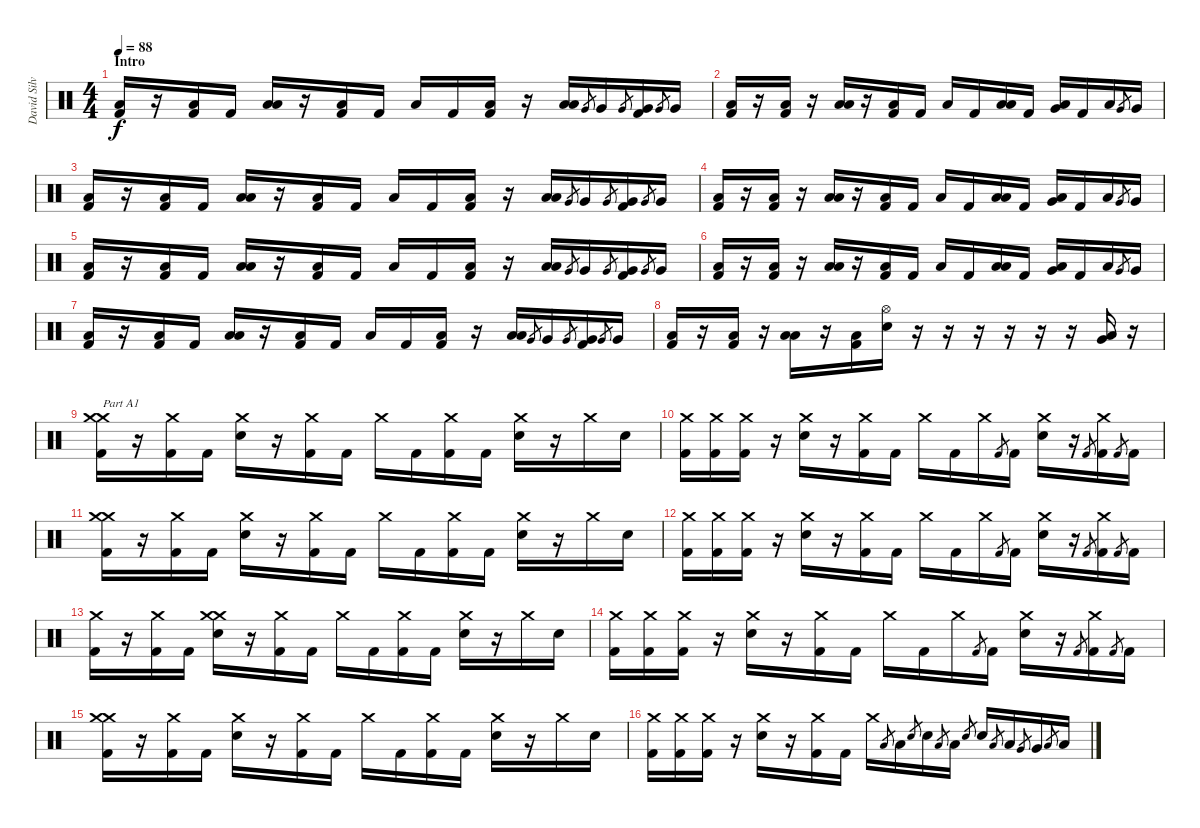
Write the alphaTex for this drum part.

\track ("David Silveria" "David Silv") {instrument percussion}
\staff {score}
\articulation defaults
\ts (4 4)
\section ("" "Intro")
\tempo 88
\clef neutral
\ks c
("Low Floor Tom (hit)" "Kick (hit) 2").16{dy f} r.16 ("Low Floor Tom (hit)" "Kick (hit) 2").16 "Kick (hit) 2".16 ("Low Tom (hit)" "Low Floor Tom (hit)").16 r.16 ("Low Floor Tom (hit)" "Kick (hit) 2").16 "Kick (hit) 2".16 "Low Floor Tom (hit)".16 "Kick (hit) 2".16 ("Low Floor Tom (hit)" "Kick (hit) 2").16 r.16 ("Low Tom (hit)" "Low Floor Tom (hit)").16 "Very Low Tom (hit)".8{gr} "Very Low Tom (hit)".16 "Very Low Tom (hit)".8{gr} ("Very Low Tom (hit)" "Kick (hit) 2").16 "Very Low Tom (hit)".8{gr} "Very Low Tom (hit)".16 |
("Low Floor Tom (hit)" "Kick (hit) 2").16 r.16 ("Low Floor Tom (hit)" "Kick (hit) 2").16 r.16 ("Low Tom (hit)" "Low Floor Tom (hit)").16 r.16 ("Low Floor Tom (hit)" "Kick (hit) 2").16 "Kick (hit) 2".16 "Low Floor Tom (hit)".16 "Kick (hit) 2".16 ("Low Tom (hit)" "Low Floor Tom (hit)").16 "Kick (hit) 2".16 ("Very Low Tom (hit)" "Low Floor Tom (hit)").16 "Kick (hit) 2".16 "Low Floor Tom (hit)".16 "Very Low Tom (hit)".8{gr} "Very Low Tom (hit)".16 |
("Low Floor Tom (hit)" "Kick (hit) 2").16 r.16 ("Low Floor Tom (hit)" "Kick (hit) 2").16 "Kick (hit) 2".16 ("Low Tom (hit)" "Low Floor Tom (hit)").16 r.16 ("Low Floor Tom (hit)" "Kick (hit) 2").16 "Kick (hit) 2".16 "Low Floor Tom (hit)".16 "Kick (hit) 2".16 ("Low Floor Tom (hit)" "Kick (hit) 2").16 r.16 ("Low Tom (hit)" "Low Floor Tom (hit)").16 "Very Low Tom (hit)".8{gr} "Very Low Tom (hit)".16 "Very Low Tom (hit)".8{gr} ("Very Low Tom (hit)" "Kick (hit) 2").16 "Very Low Tom (hit)".8{gr} "Very Low Tom (hit)".16 |
("Low Floor Tom (hit)" "Kick (hit) 2").16 r.16 ("Low Floor Tom (hit)" "Kick (hit) 2").16 r.16 ("Low Tom (hit)" "Low Floor Tom (hit)").16 r.16 ("Low Floor Tom (hit)" "Kick (hit) 2").16 "Kick (hit) 2".16 "Low Floor Tom (hit)".16 "Kick (hit) 2".16 ("Low Tom (hit)" "Low Floor Tom (hit)").16 "Kick (hit) 2".16 ("Very Low Tom (hit)" "Low Floor Tom (hit)").16 "Kick (hit) 2".16 "Low Floor Tom (hit)".16 "Very Low Tom (hit)".8{gr} "Very Low Tom (hit)".16 |
("Low Floor Tom (hit)" "Kick (hit) 2").16 r.16 ("Low Floor Tom (hit)" "Kick (hit) 2").16 "Kick (hit) 2".16 ("Low Tom (hit)" "Low Floor Tom (hit)").16 r.16 ("Low Floor Tom (hit)" "Kick (hit) 2").16 "Kick (hit) 2".16 "Low Floor Tom (hit)".16 "Kick (hit) 2".16 ("Low Floor Tom (hit)" "Kick (hit) 2").16 r.16 ("Low Tom (hit)" "Low Floor Tom (hit)").16 "Very Low Tom (hit)".8{gr} "Very Low Tom (hit)".16 "Very Low Tom (hit)".8{gr} ("Very Low Tom (hit)" "Kick (hit) 2").16 "Very Low Tom (hit)".8{gr} "Very Low Tom (hit)".16 |
("Low Floor Tom (hit)" "Kick (hit) 2").16 r.16 ("Low Floor Tom (hit)" "Kick (hit) 2").16 r.16 ("Low Tom (hit)" "Low Floor Tom (hit)").16 r.16 ("Low Floor Tom (hit)" "Kick (hit) 2").16 "Kick (hit) 2".16 "Low Floor Tom (hit)".16 "Kick (hit) 2".16 ("Low Tom (hit)" "Low Floor Tom (hit)").16 "Kick (hit) 2".16 ("Very Low Tom (hit)" "Low Floor Tom (hit)").16 "Kick (hit) 2".16 "Low Floor Tom (hit)".16 "Very Low Tom (hit)".8{gr} "Very Low Tom (hit)".16 |
("Low Floor Tom (hit)" "Kick (hit) 2").16 r.16 ("Low Floor Tom (hit)" "Kick (hit) 2").16 "Kick (hit) 2".16 ("Low Tom (hit)" "Low Floor Tom (hit)").16 r.16 ("Low Floor Tom (hit)" "Kick (hit) 2").16 "Kick (hit) 2".16 "Low Floor Tom (hit)".16 "Kick (hit) 2".16 ("Low Floor Tom (hit)" "Kick (hit) 2").16 r.16 ("Low Tom (hit)" "Low Floor Tom (hit)").16 "Very Low Tom (hit)".8{gr} "Very Low Tom (hit)".16 "Very Low Tom (hit)".8{gr} ("Very Low Tom (hit)" "Kick (hit) 2").16 "Very Low Tom (hit)".8{gr} "Very Low Tom (hit)".16 |
("Low Floor Tom (hit)" "Kick (hit) 2").16 r.16 ("Low Floor Tom (hit)" "Kick (hit) 2").16 r.16 ("Low Tom (hit)" "Low Floor Tom (hit)").16 r.16 ("Low Floor Tom (hit)" "Kick (hit) 2").16 ("Hi-Hat (open)" "Snare (hit) 2").16 r.16 r.16 r.16 r.16 r.16 r.16 ("Very Low Tom (hit)" "Low Floor Tom (hit)").16 r.16 |
("Crash medium (hit)" "Crash medium (hit)" "Kick (hit) 2").16{txt "Part A1"} r.16 ("Crash medium (hit)" "Kick (hit) 2").16 "Kick (hit) 2".16 ("Crash medium (hit)" "Snare (hit) 2").16 r.16 ("Crash medium (hit)" "Kick (hit) 2").16 "Kick (hit) 2".16 "Crash medium (hit)".16 "Kick (hit) 2".16 ("Crash medium (hit)" "Kick (hit) 2").16 "Kick (hit) 2".16 ("Crash medium (hit)" "Snare (hit) 2").16 r.16 "Crash medium (hit)".16 "Snare (hit) 2".16 |
("Crash medium (hit)" "Kick (hit) 2").16 ("Crash medium (hit)" "Kick (hit) 2").16 ("Crash medium (hit)" "Kick (hit) 2").16 r.16 ("Crash medium (hit)" "Snare (hit) 2").16 r.16 ("Crash medium (hit)" "Kick (hit) 2").16 "Kick (hit) 2".16 "Crash medium (hit)".16 "Kick (hit) 2".16 "Crash medium (hit)".16 "Kick (hit) 2".8{gr} "Kick (hit) 2".16 ("Crash medium (hit)" "Snare (hit) 2").16 r.16 "Kick (hit) 2".8{gr} ("Crash medium (hit)" "Kick (hit) 2").16 "Kick (hit) 2".8{gr} "Kick (hit) 2".16 |
("Crash medium (hit)" "Crash medium (hit)" "Kick (hit) 2").16 r.16 ("Crash medium (hit)" "Kick (hit) 2").16 "Kick (hit) 2".16 ("Crash medium (hit)" "Snare (hit) 2").16 r.16 ("Crash medium (hit)" "Kick (hit) 2").16 "Kick (hit) 2".16 "Crash medium (hit)".16 "Kick (hit) 2".16 ("Crash medium (hit)" "Kick (hit) 2").16 "Kick (hit) 2".16 ("Crash medium (hit)" "Snare (hit) 2").16 r.16 "Crash medium (hit)".16 "Snare (hit) 2".16 |
("Crash medium (hit)" "Kick (hit) 2").16 ("Crash medium (hit)" "Kick (hit) 2").16 ("Crash medium (hit)" "Kick (hit) 2").16 r.16 ("Crash medium (hit)" "Snare (hit) 2").16 r.16 ("Crash medium (hit)" "Kick (hit) 2").16 "Kick (hit) 2".16 "Crash medium (hit)".16 "Kick (hit) 2".16 "Crash medium (hit)".16 "Kick (hit) 2".8{gr} "Kick (hit) 2".16 ("Crash medium (hit)" "Snare (hit) 2").16 r.16 "Kick (hit) 2".8{gr} ("Crash medium (hit)" "Kick (hit) 2").16 "Kick (hit) 2".8{gr} "Kick (hit) 2".16 |
("Crash medium (hit)" "Kick (hit) 2").16 r.16 ("Crash medium (hit)" "Kick (hit) 2").16 "Kick (hit) 2".16 ("Crash medium (hit)" "Crash medium (hit)" "Snare (hit) 2").16 r.16 ("Crash medium (hit)" "Kick (hit) 2").16 "Kick (hit) 2".16 "Crash medium (hit)".16 "Kick (hit) 2".16 ("Crash medium (hit)" "Kick (hit) 2").16 "Kick (hit) 2".16 ("Crash medium (hit)" "Snare (hit) 2").16 r.16 "Crash medium (hit)".16 "Snare (hit) 2".16 |
("Crash medium (hit)" "Kick (hit) 2").16 ("Crash medium (hit)" "Kick (hit) 2").16 ("Crash medium (hit)" "Kick (hit) 2").16 r.16 ("Crash medium (hit)" "Snare (hit) 2").16 r.16 ("Crash medium (hit)" "Kick (hit) 2").16 "Kick (hit) 2".16 "Crash medium (hit)".16 "Kick (hit) 2".16 "Crash medium (hit)".16 "Kick (hit) 2".8{gr} "Kick (hit) 2".16 ("Crash medium (hit)" "Snare (hit) 2").16 r.16 "Kick (hit) 2".8{gr} ("Crash medium (hit)" "Kick (hit) 2").16 "Kick (hit) 2".8{gr} "Kick (hit) 2".16 |
("Crash medium (hit)" "Crash medium (hit)" "Kick (hit) 2").16 r.16 ("Crash medium (hit)" "Kick (hit) 2").16 "Kick (hit) 2".16 ("Crash medium (hit)" "Snare (hit) 2").16 r.16 ("Crash medium (hit)" "Kick (hit) 2").16 "Kick (hit) 2".16 "Crash medium (hit)".16 "Kick (hit) 2".16 ("Crash medium (hit)" "Kick (hit) 2").16 "Kick (hit) 2".16 ("Crash medium (hit)" "Snare (hit) 2").16 r.16 "Crash medium (hit)".16 "Snare (hit) 2".16 |
("Crash medium (hit)" "Kick (hit) 2").16 ("Crash medium (hit)" "Kick (hit) 2").16 ("Crash medium (hit)" "Kick (hit) 2").16 r.16 ("Crash medium (hit)" "Snare (hit) 2").16 r.16 ("Crash medium (hit)" "Kick (hit) 2").16 "Kick (hit) 2".16 "Crash medium (hit)".16 "Low Tom (hit)".8{gr} "Low Tom (hit)".16 "Snare (hit) 2".8{gr} "Snare (hit) 2".16 "Low Tom (hit)".8{gr} "Low Tom (hit)".16 "Snare (hit) 2".8{gr} "Snare (hit) 2".16 "Low Tom (hit)".8{gr} "Low Tom (hit)".16 "Very Low Tom (hit)".8{gr} "Very Low Tom (hit)".16 "Low Floor Tom (hit)".8{gr} "Low Floor Tom (hit)".16
